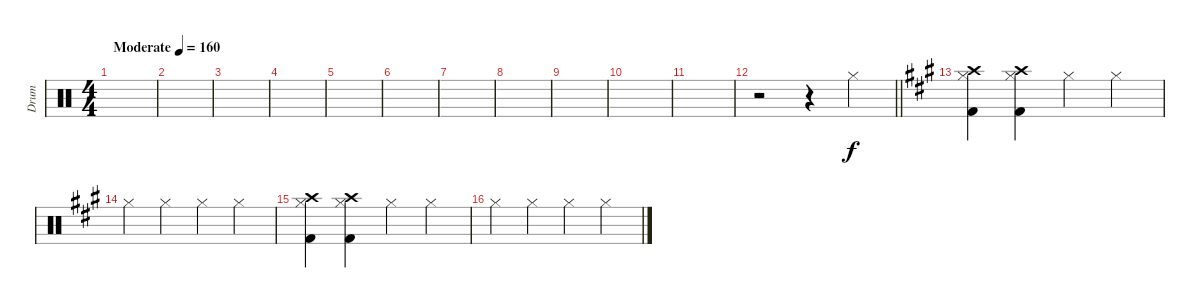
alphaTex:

\track ("Drum" "Drum") {instrument percussion}
\staff {score}
\articulation defaults
\ts (4 4)
\tempo (160 "Moderate")
\clef neutral
\ks c
|
|
|
|
|
|
|
|
|
|
|
\barLineRight lightlight
r.2 r.4 "Hi-Hat (closed)".4 |
\ks a
("Hi-Hat (closed)" "Kick (hit) 2" "Crash high (hit)").4 ("Hi-Hat (closed)" "Kick (hit) 2" "Crash high (hit)").4 "Hi-Hat (closed)".4 "Hi-Hat (closed)".4 |
"Hi-Hat (closed)".4 "Hi-Hat (closed)".4 "Hi-Hat (closed)".4 "Hi-Hat (closed)".4 |
("Hi-Hat (closed)" "Kick (hit) 2" "Crash high (hit)").4 ("Hi-Hat (closed)" "Kick (hit) 2" "Crash high (hit)").4 "Hi-Hat (closed)".4 "Hi-Hat (closed)".4 |
"Hi-Hat (closed)".4 "Hi-Hat (closed)".4 "Hi-Hat (closed)".4 "Hi-Hat (closed)".4
